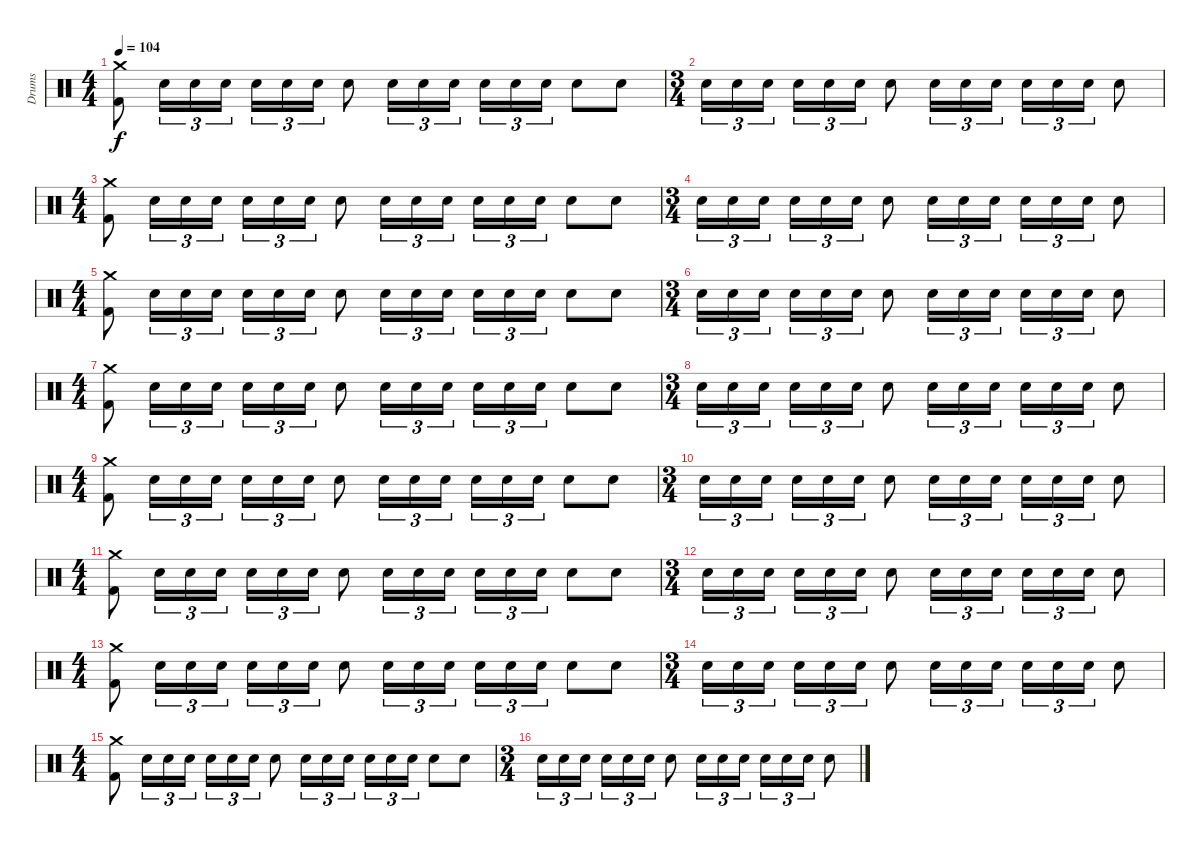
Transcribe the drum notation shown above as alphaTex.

\track ("Drums" "Drums") {instrument percussion}
\staff {score}
\articulation defaults
\ts (4 4)
\tempo 104
\clef neutral
\ks c
("Crash medium (hit)" "Kick (hit) 2").8{dy f} "Electric Snare (hit)".16{tu (3 2)} "Electric Snare (hit)".16{tu (3 2)} "Electric Snare (hit)".16{tu (3 2)} "Electric Snare (hit)".16{tu (3 2)} "Electric Snare (hit)".16{tu (3 2)} "Electric Snare (hit)".16{tu (3 2)} "Electric Snare (hit)".8 "Electric Snare (hit)".16{tu (3 2)} "Electric Snare (hit)".16{tu (3 2)} "Electric Snare (hit)".16{tu (3 2)} "Electric Snare (hit)".16{tu (3 2)} "Electric Snare (hit)".16{tu (3 2)} "Electric Snare (hit)".16{tu (3 2)} "Electric Snare (hit)".8 "Electric Snare (hit)".8 |
\ts (3 4)
"Electric Snare (hit)".16{tu (3 2)} "Electric Snare (hit)".16{tu (3 2)} "Electric Snare (hit)".16{tu (3 2)} "Electric Snare (hit)".16{tu (3 2)} "Electric Snare (hit)".16{tu (3 2)} "Electric Snare (hit)".16{tu (3 2)} "Electric Snare (hit)".8 "Electric Snare (hit)".16{tu (3 2)} "Electric Snare (hit)".16{tu (3 2)} "Electric Snare (hit)".16{tu (3 2)} "Electric Snare (hit)".16{tu (3 2)} "Electric Snare (hit)".16{tu (3 2)} "Electric Snare (hit)".16{tu (3 2)} "Electric Snare (hit)".8 |
\ts (4 4)
("Crash medium (hit)" "Kick (hit) 2").8 "Electric Snare (hit)".16{tu (3 2)} "Electric Snare (hit)".16{tu (3 2)} "Electric Snare (hit)".16{tu (3 2)} "Electric Snare (hit)".16{tu (3 2)} "Electric Snare (hit)".16{tu (3 2)} "Electric Snare (hit)".16{tu (3 2)} "Electric Snare (hit)".8 "Electric Snare (hit)".16{tu (3 2)} "Electric Snare (hit)".16{tu (3 2)} "Electric Snare (hit)".16{tu (3 2)} "Electric Snare (hit)".16{tu (3 2)} "Electric Snare (hit)".16{tu (3 2)} "Electric Snare (hit)".16{tu (3 2)} "Electric Snare (hit)".8 "Electric Snare (hit)".8 |
\ts (3 4)
"Electric Snare (hit)".16{tu (3 2)} "Electric Snare (hit)".16{tu (3 2)} "Electric Snare (hit)".16{tu (3 2)} "Electric Snare (hit)".16{tu (3 2)} "Electric Snare (hit)".16{tu (3 2)} "Electric Snare (hit)".16{tu (3 2)} "Electric Snare (hit)".8 "Electric Snare (hit)".16{tu (3 2)} "Electric Snare (hit)".16{tu (3 2)} "Electric Snare (hit)".16{tu (3 2)} "Electric Snare (hit)".16{tu (3 2)} "Electric Snare (hit)".16{tu (3 2)} "Electric Snare (hit)".16{tu (3 2)} "Electric Snare (hit)".8 |
\ts (4 4)
("Crash medium (hit)" "Kick (hit) 2").8 "Electric Snare (hit)".16{tu (3 2)} "Electric Snare (hit)".16{tu (3 2)} "Electric Snare (hit)".16{tu (3 2)} "Electric Snare (hit)".16{tu (3 2)} "Electric Snare (hit)".16{tu (3 2)} "Electric Snare (hit)".16{tu (3 2)} "Electric Snare (hit)".8 "Electric Snare (hit)".16{tu (3 2)} "Electric Snare (hit)".16{tu (3 2)} "Electric Snare (hit)".16{tu (3 2)} "Electric Snare (hit)".16{tu (3 2)} "Electric Snare (hit)".16{tu (3 2)} "Electric Snare (hit)".16{tu (3 2)} "Electric Snare (hit)".8 "Electric Snare (hit)".8 |
\ts (3 4)
"Electric Snare (hit)".16{tu (3 2)} "Electric Snare (hit)".16{tu (3 2)} "Electric Snare (hit)".16{tu (3 2)} "Electric Snare (hit)".16{tu (3 2)} "Electric Snare (hit)".16{tu (3 2)} "Electric Snare (hit)".16{tu (3 2)} "Electric Snare (hit)".8 "Electric Snare (hit)".16{tu (3 2)} "Electric Snare (hit)".16{tu (3 2)} "Electric Snare (hit)".16{tu (3 2)} "Electric Snare (hit)".16{tu (3 2)} "Electric Snare (hit)".16{tu (3 2)} "Electric Snare (hit)".16{tu (3 2)} "Electric Snare (hit)".8 |
\ts (4 4)
("Crash medium (hit)" "Kick (hit) 2").8 "Electric Snare (hit)".16{tu (3 2)} "Electric Snare (hit)".16{tu (3 2)} "Electric Snare (hit)".16{tu (3 2)} "Electric Snare (hit)".16{tu (3 2)} "Electric Snare (hit)".16{tu (3 2)} "Electric Snare (hit)".16{tu (3 2)} "Electric Snare (hit)".8 "Electric Snare (hit)".16{tu (3 2)} "Electric Snare (hit)".16{tu (3 2)} "Electric Snare (hit)".16{tu (3 2)} "Electric Snare (hit)".16{tu (3 2)} "Electric Snare (hit)".16{tu (3 2)} "Electric Snare (hit)".16{tu (3 2)} "Electric Snare (hit)".8 "Electric Snare (hit)".8 |
\ts (3 4)
"Electric Snare (hit)".16{tu (3 2)} "Electric Snare (hit)".16{tu (3 2)} "Electric Snare (hit)".16{tu (3 2)} "Electric Snare (hit)".16{tu (3 2)} "Electric Snare (hit)".16{tu (3 2)} "Electric Snare (hit)".16{tu (3 2)} "Electric Snare (hit)".8 "Electric Snare (hit)".16{tu (3 2)} "Electric Snare (hit)".16{tu (3 2)} "Electric Snare (hit)".16{tu (3 2)} "Electric Snare (hit)".16{tu (3 2)} "Electric Snare (hit)".16{tu (3 2)} "Electric Snare (hit)".16{tu (3 2)} "Electric Snare (hit)".8 |
\ts (4 4)
("Crash medium (hit)" "Kick (hit) 2").8 "Electric Snare (hit)".16{tu (3 2)} "Electric Snare (hit)".16{tu (3 2)} "Electric Snare (hit)".16{tu (3 2)} "Electric Snare (hit)".16{tu (3 2)} "Electric Snare (hit)".16{tu (3 2)} "Electric Snare (hit)".16{tu (3 2)} "Electric Snare (hit)".8 "Electric Snare (hit)".16{tu (3 2)} "Electric Snare (hit)".16{tu (3 2)} "Electric Snare (hit)".16{tu (3 2)} "Electric Snare (hit)".16{tu (3 2)} "Electric Snare (hit)".16{tu (3 2)} "Electric Snare (hit)".16{tu (3 2)} "Electric Snare (hit)".8 "Electric Snare (hit)".8 |
\ts (3 4)
"Electric Snare (hit)".16{tu (3 2)} "Electric Snare (hit)".16{tu (3 2)} "Electric Snare (hit)".16{tu (3 2)} "Electric Snare (hit)".16{tu (3 2)} "Electric Snare (hit)".16{tu (3 2)} "Electric Snare (hit)".16{tu (3 2)} "Electric Snare (hit)".8 "Electric Snare (hit)".16{tu (3 2)} "Electric Snare (hit)".16{tu (3 2)} "Electric Snare (hit)".16{tu (3 2)} "Electric Snare (hit)".16{tu (3 2)} "Electric Snare (hit)".16{tu (3 2)} "Electric Snare (hit)".16{tu (3 2)} "Electric Snare (hit)".8 |
\ts (4 4)
("Crash medium (hit)" "Kick (hit) 2").8 "Electric Snare (hit)".16{tu (3 2)} "Electric Snare (hit)".16{tu (3 2)} "Electric Snare (hit)".16{tu (3 2)} "Electric Snare (hit)".16{tu (3 2)} "Electric Snare (hit)".16{tu (3 2)} "Electric Snare (hit)".16{tu (3 2)} "Electric Snare (hit)".8 "Electric Snare (hit)".16{tu (3 2)} "Electric Snare (hit)".16{tu (3 2)} "Electric Snare (hit)".16{tu (3 2)} "Electric Snare (hit)".16{tu (3 2)} "Electric Snare (hit)".16{tu (3 2)} "Electric Snare (hit)".16{tu (3 2)} "Electric Snare (hit)".8 "Electric Snare (hit)".8 |
\ts (3 4)
"Electric Snare (hit)".16{tu (3 2)} "Electric Snare (hit)".16{tu (3 2)} "Electric Snare (hit)".16{tu (3 2)} "Electric Snare (hit)".16{tu (3 2)} "Electric Snare (hit)".16{tu (3 2)} "Electric Snare (hit)".16{tu (3 2)} "Electric Snare (hit)".8 "Electric Snare (hit)".16{tu (3 2)} "Electric Snare (hit)".16{tu (3 2)} "Electric Snare (hit)".16{tu (3 2)} "Electric Snare (hit)".16{tu (3 2)} "Electric Snare (hit)".16{tu (3 2)} "Electric Snare (hit)".16{tu (3 2)} "Electric Snare (hit)".8 |
\ts (4 4)
("Crash medium (hit)" "Kick (hit) 2").8 "Electric Snare (hit)".16{tu (3 2)} "Electric Snare (hit)".16{tu (3 2)} "Electric Snare (hit)".16{tu (3 2)} "Electric Snare (hit)".16{tu (3 2)} "Electric Snare (hit)".16{tu (3 2)} "Electric Snare (hit)".16{tu (3 2)} "Electric Snare (hit)".8 "Electric Snare (hit)".16{tu (3 2)} "Electric Snare (hit)".16{tu (3 2)} "Electric Snare (hit)".16{tu (3 2)} "Electric Snare (hit)".16{tu (3 2)} "Electric Snare (hit)".16{tu (3 2)} "Electric Snare (hit)".16{tu (3 2)} "Electric Snare (hit)".8 "Electric Snare (hit)".8 |
\ts (3 4)
"Electric Snare (hit)".16{tu (3 2)} "Electric Snare (hit)".16{tu (3 2)} "Electric Snare (hit)".16{tu (3 2)} "Electric Snare (hit)".16{tu (3 2)} "Electric Snare (hit)".16{tu (3 2)} "Electric Snare (hit)".16{tu (3 2)} "Electric Snare (hit)".8 "Electric Snare (hit)".16{tu (3 2)} "Electric Snare (hit)".16{tu (3 2)} "Electric Snare (hit)".16{tu (3 2)} "Electric Snare (hit)".16{tu (3 2)} "Electric Snare (hit)".16{tu (3 2)} "Electric Snare (hit)".16{tu (3 2)} "Electric Snare (hit)".8 |
\ts (4 4)
("Crash medium (hit)" "Kick (hit) 2").8 "Electric Snare (hit)".16{tu (3 2)} "Electric Snare (hit)".16{tu (3 2)} "Electric Snare (hit)".16{tu (3 2)} "Electric Snare (hit)".16{tu (3 2)} "Electric Snare (hit)".16{tu (3 2)} "Electric Snare (hit)".16{tu (3 2)} "Electric Snare (hit)".8 "Electric Snare (hit)".16{tu (3 2)} "Electric Snare (hit)".16{tu (3 2)} "Electric Snare (hit)".16{tu (3 2)} "Electric Snare (hit)".16{tu (3 2)} "Electric Snare (hit)".16{tu (3 2)} "Electric Snare (hit)".16{tu (3 2)} "Electric Snare (hit)".8 "Electric Snare (hit)".8 |
\ts (3 4)
"Electric Snare (hit)".16{tu (3 2)} "Electric Snare (hit)".16{tu (3 2)} "Electric Snare (hit)".16{tu (3 2)} "Electric Snare (hit)".16{tu (3 2)} "Electric Snare (hit)".16{tu (3 2)} "Electric Snare (hit)".16{tu (3 2)} "Electric Snare (hit)".8 "Electric Snare (hit)".16{tu (3 2)} "Electric Snare (hit)".16{tu (3 2)} "Electric Snare (hit)".16{tu (3 2)} "Electric Snare (hit)".16{tu (3 2)} "Electric Snare (hit)".16{tu (3 2)} "Electric Snare (hit)".16{tu (3 2)} "Electric Snare (hit)".8
